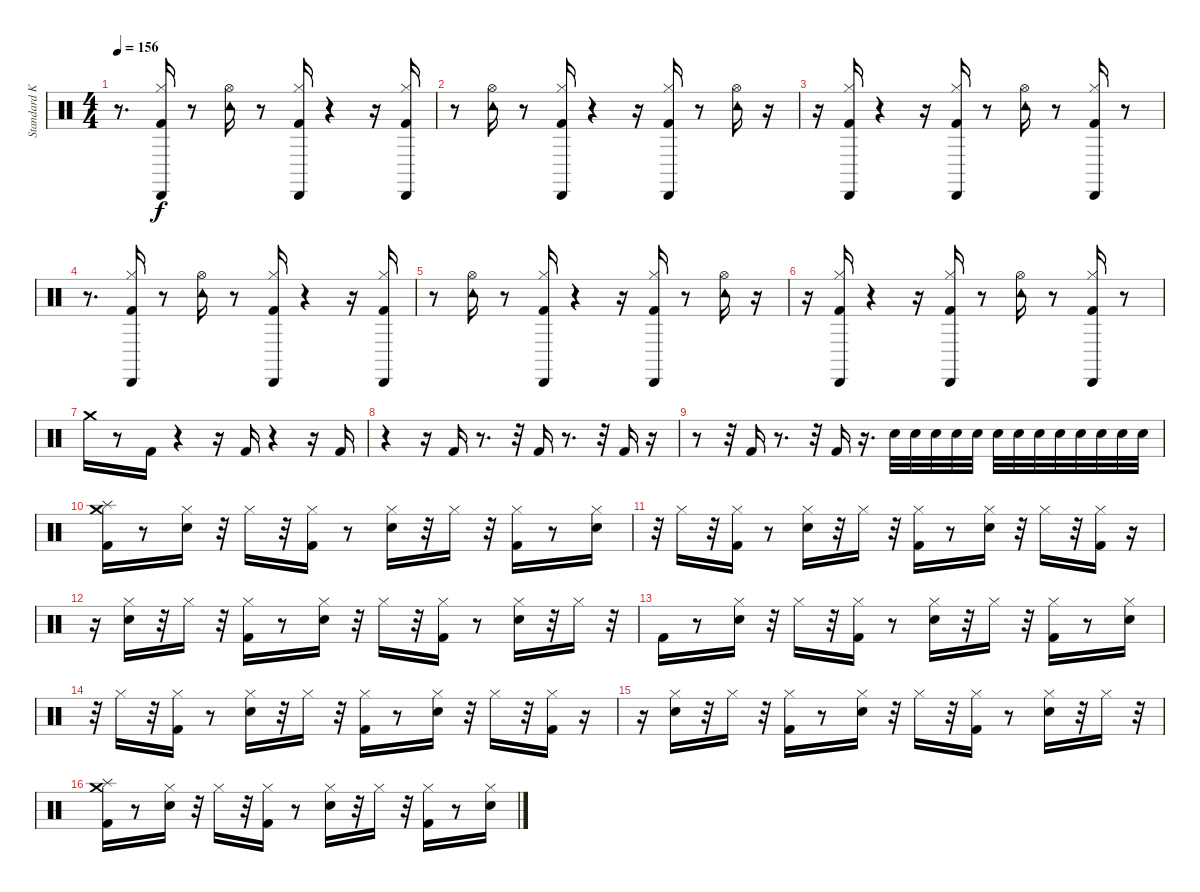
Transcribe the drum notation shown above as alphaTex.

\track ("Standard Kit" "Standard K") {instrument percussion}
\staff {score}
\articulation defaults
\ts (4 4)
\tempo 156
\clef neutral
\ks c
r.8{d dy f} ("Kick (hit) 2" "Hi-Hat (closed)" "Cabasa (hit)").16 r.8 ("Hi-Hat (open)" "Tambourine (hit)").16 r.8 ("Kick (hit) 2" "Hi-Hat (closed)" "Cabasa (hit)").16 r.4 r.16 ("Kick (hit) 2" "Hi-Hat (closed)" "Cabasa (hit)").16 |
r.8 ("Hi-Hat (open)" "Tambourine (hit)").16 r.8 ("Kick (hit) 2" "Hi-Hat (closed)" "Cabasa (hit)").16 r.4 r.16 ("Kick (hit) 2" "Hi-Hat (closed)" "Cabasa (hit)").16 r.8 ("Hi-Hat (open)" "Tambourine (hit)").16 r.16 |
r.16 ("Kick (hit) 2" "Hi-Hat (closed)" "Cabasa (hit)").16 r.4 r.16 ("Kick (hit) 2" "Hi-Hat (closed)" "Cabasa (hit)").16 r.8 ("Hi-Hat (open)" "Tambourine (hit)").16 r.8 ("Kick (hit) 2" "Hi-Hat (closed)" "Cabasa (hit)").16 r.8 |
r.8{d} ("Kick (hit) 2" "Hi-Hat (closed)" "Cabasa (hit)").16 r.8 ("Hi-Hat (open)" "Tambourine (hit)").16 r.8 ("Kick (hit) 2" "Hi-Hat (closed)" "Cabasa (hit)").16 r.4 r.16 ("Kick (hit) 2" "Hi-Hat (closed)" "Cabasa (hit)").16 |
r.8 ("Hi-Hat (open)" "Tambourine (hit)").16 r.8 ("Kick (hit) 2" "Hi-Hat (closed)" "Cabasa (hit)").16 r.4 r.16 ("Kick (hit) 2" "Hi-Hat (closed)" "Cabasa (hit)").16 r.8 ("Hi-Hat (open)" "Tambourine (hit)").16 r.16 |
r.16 ("Kick (hit) 2" "Hi-Hat (closed)" "Cabasa (hit)").16 r.4 r.16 ("Kick (hit) 2" "Hi-Hat (closed)" "Cabasa (hit)").16 r.8 ("Hi-Hat (open)" "Tambourine (hit)").16 r.8 ("Kick (hit) 2" "Hi-Hat (closed)" "Cabasa (hit)").16 r.8 |
"Crash medium (hit)".16 r.8 "Kick (hit) 2".16 r.4 r.16 "Kick (hit) 2".16 r.4 r.16 "Kick (hit) 2".16 |
r.4 r.16 "Kick (hit) 2".16 r.8{d} r.32 "Kick (hit) 2".16 r.8{d} r.32 "Kick (hit) 2".16 r.16 |
r.8 r.32 "Kick (hit) 2".16 r.8{d} r.32 "Kick (hit) 2".16 r.16{d} "Electric Snare (hit)".32 "Electric Snare (hit)".32 "Electric Snare (hit)".32 "Electric Snare (hit)".32 "Electric Snare (hit)".32 "Electric Snare (hit)".32 "Electric Snare (hit)".32 "Electric Snare (hit)".32 "Electric Snare (hit)".32 "Electric Snare (hit)".32 "Electric Snare (hit)".32 "Electric Snare (hit)".32 "Electric Snare (hit)".32 |
("Kick (hit) 2" "Splash (hit)" "Crash medium (hit)").16 r.8 ("Electric Snare (hit)" "Hi-Hat (closed)").16 r.32 "Hi-Hat (closed)".16 r.32 ("Kick (hit) 2" "Hi-Hat (closed)").16 r.8 ("Electric Snare (hit)" "Hi-Hat (closed)").16 r.32 "Hi-Hat (closed)".16 r.32 ("Kick (hit) 2" "Hi-Hat (closed)").16 r.8 ("Electric Snare (hit)" "Hi-Hat (closed)").16 |
r.32 "Hi-Hat (closed)".16 r.32 ("Kick (hit) 2" "Hi-Hat (closed)").16 r.8 ("Electric Snare (hit)" "Hi-Hat (closed)").16 r.32 "Hi-Hat (closed)".16 r.32 ("Kick (hit) 2" "Hi-Hat (closed)").16 r.8 ("Electric Snare (hit)" "Hi-Hat (closed)").16 r.32 "Hi-Hat (closed)".16 r.32 ("Kick (hit) 2" "Hi-Hat (closed)").16 r.16 |
r.16 ("Electric Snare (hit)" "Hi-Hat (closed)").16 r.32 "Hi-Hat (closed)".16 r.32 ("Kick (hit) 2" "Hi-Hat (closed)").16 r.8 ("Electric Snare (hit)" "Hi-Hat (closed)").16 r.32 "Hi-Hat (closed)".16 r.32 ("Kick (hit) 2" "Hi-Hat (closed)").16 r.8 ("Electric Snare (hit)" "Hi-Hat (closed)").16 r.32 "Hi-Hat (closed)".16 r.32 |
"Kick (hit) 2".16 r.8 ("Electric Snare (hit)" "Hi-Hat (closed)").16 r.32 "Hi-Hat (closed)".16 r.32 ("Kick (hit) 2" "Hi-Hat (closed)").16 r.8 ("Electric Snare (hit)" "Hi-Hat (closed)").16 r.32 "Hi-Hat (closed)".16 r.32 ("Kick (hit) 2" "Hi-Hat (closed)").16 r.8 ("Electric Snare (hit)" "Hi-Hat (closed)").16 |
r.32 "Hi-Hat (closed)".16 r.32 ("Kick (hit) 2" "Hi-Hat (closed)").16 r.8 ("Electric Snare (hit)" "Hi-Hat (closed)").16 r.32 "Hi-Hat (closed)".16 r.32 ("Kick (hit) 2" "Hi-Hat (closed)").16 r.8 ("Electric Snare (hit)" "Hi-Hat (closed)").16 r.32 "Hi-Hat (closed)".16 r.32 ("Kick (hit) 2" "Hi-Hat (closed)").16 r.16 |
r.16 ("Electric Snare (hit)" "Hi-Hat (closed)").16 r.32 "Hi-Hat (closed)".16 r.32 ("Kick (hit) 2" "Hi-Hat (closed)").16 r.8 ("Electric Snare (hit)" "Hi-Hat (closed)").16 r.32 "Hi-Hat (closed)".16 r.32 ("Kick (hit) 2" "Hi-Hat (closed)").16 r.8 ("Electric Snare (hit)" "Hi-Hat (closed)").16 r.32 "Hi-Hat (closed)".16 r.32 |
("Kick (hit) 2" "Splash (hit)" "Crash medium (hit)").16 r.8 ("Electric Snare (hit)" "Hi-Hat (closed)").16 r.32 "Hi-Hat (closed)".16 r.32 ("Kick (hit) 2" "Hi-Hat (closed)").16 r.8 ("Electric Snare (hit)" "Hi-Hat (closed)").16 r.32 "Hi-Hat (closed)".16 r.32 ("Kick (hit) 2" "Hi-Hat (closed)").16 r.8 ("Electric Snare (hit)" "Hi-Hat (closed)").16
